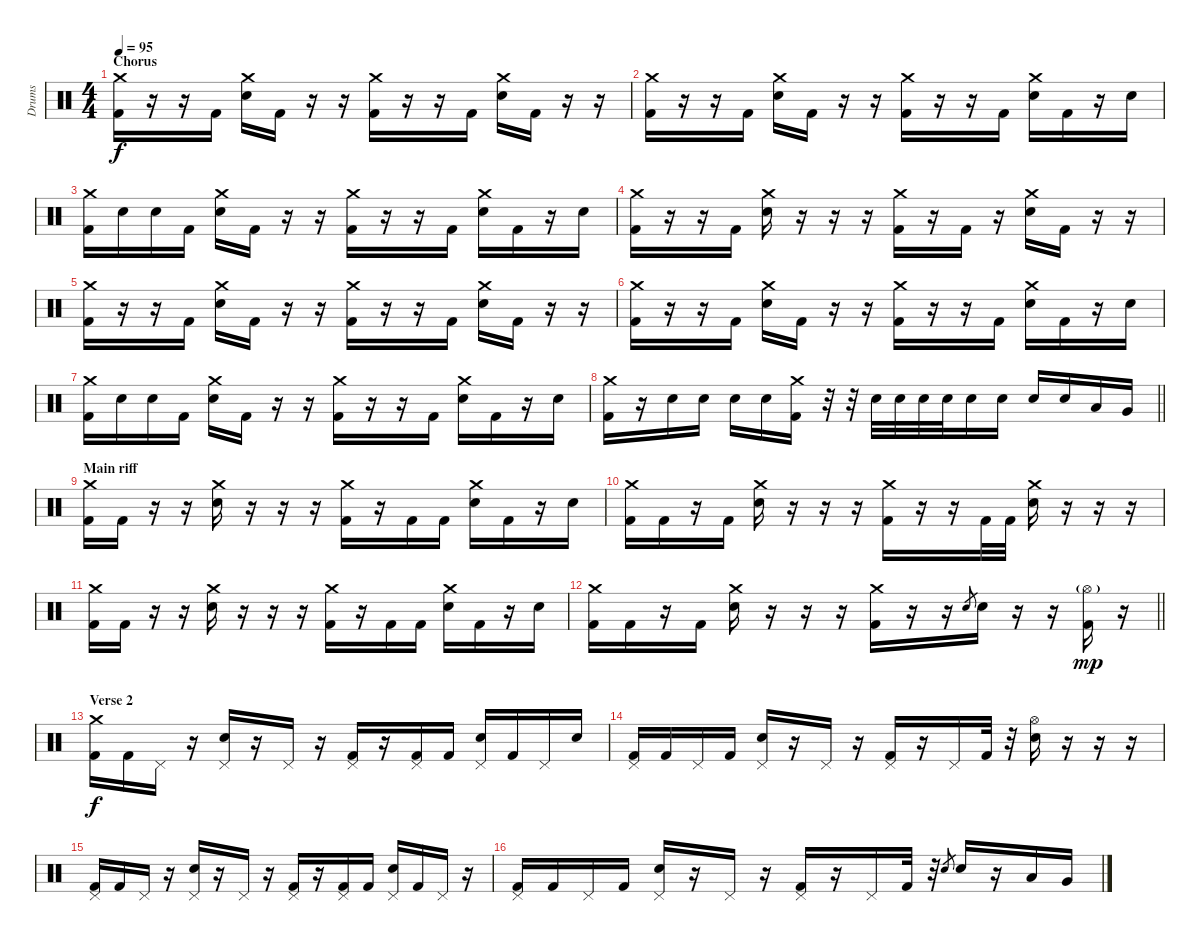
\track ("Drums" "Drums") {instrument percussion}
\staff {score}
\articulation defaults
\ts (4 4)
\section ("" "Chorus")
\tempo 95
\clef neutral
\ks c
("Crash medium (hit)" "Kick (hit) 2").16{dy f} r.16 r.16 "Kick (hit) 2".16 ("Crash medium (hit)" "Electric Snare (hit)").16 "Kick (hit) 2".16 r.16 r.16 ("Crash medium (hit)" "Kick (hit) 2").16 r.16 r.16 "Kick (hit) 2".16 ("Crash medium (hit)" "Electric Snare (hit)").16 "Kick (hit) 2".16 r.16 r.16 |
("Crash medium (hit)" "Kick (hit) 2").16 r.16 r.16 "Kick (hit) 2".16 ("Crash medium (hit)" "Electric Snare (hit)").16 "Kick (hit) 2".16 r.16 r.16 ("Crash medium (hit)" "Kick (hit) 2").16 r.16 r.16 "Kick (hit) 2".16 ("Crash medium (hit)" "Electric Snare (hit)").16 "Kick (hit) 2".16 r.16 "Electric Snare (hit)".16 |
("Crash medium (hit)" "Kick (hit) 2").16 "Electric Snare (hit)".16 "Electric Snare (hit)".16 "Kick (hit) 2".16 ("Crash medium (hit)" "Electric Snare (hit)").16 "Kick (hit) 2".16 r.16 r.16 ("Crash medium (hit)" "Kick (hit) 2").16 r.16 r.16 "Kick (hit) 2".16 ("Crash medium (hit)" "Electric Snare (hit)").16 "Kick (hit) 2".16 r.16 "Electric Snare (hit)".16 |
("Crash medium (hit)" "Kick (hit) 2").16 r.16 r.16 "Kick (hit) 2".16 ("Crash medium (hit)" "Electric Snare (hit)").16 r.16 r.16 r.16 ("Crash medium (hit)" "Kick (hit) 2").16 r.16 "Kick (hit) 2".16 r.16 ("Crash medium (hit)" "Electric Snare (hit)").16 "Kick (hit) 2".16 r.16 r.16 |
("Crash medium (hit)" "Kick (hit) 2").16 r.16 r.16 "Kick (hit) 2".16 ("Crash medium (hit)" "Electric Snare (hit)").16 "Kick (hit) 2".16 r.16 r.16 ("Crash medium (hit)" "Kick (hit) 2").16 r.16 r.16 "Kick (hit) 2".16 ("Crash medium (hit)" "Electric Snare (hit)").16 "Kick (hit) 2".16 r.16 r.16 |
("Crash medium (hit)" "Kick (hit) 2").16 r.16 r.16 "Kick (hit) 2".16 ("Crash medium (hit)" "Electric Snare (hit)").16 "Kick (hit) 2".16 r.16 r.16 ("Crash medium (hit)" "Kick (hit) 2").16 r.16 r.16 "Kick (hit) 2".16 ("Crash medium (hit)" "Electric Snare (hit)").16 "Kick (hit) 2".16 r.16 "Electric Snare (hit)".16 |
("Crash medium (hit)" "Kick (hit) 2").16 "Electric Snare (hit)".16 "Electric Snare (hit)".16 "Kick (hit) 2".16 ("Crash medium (hit)" "Electric Snare (hit)").16 "Kick (hit) 2".16 r.16 r.16 ("Crash medium (hit)" "Kick (hit) 2").16 r.16 r.16 "Kick (hit) 2".16 ("Crash medium (hit)" "Electric Snare (hit)").16 "Kick (hit) 2".16 r.16 "Electric Snare (hit)".16 |
\barLineRight lightlight
("Crash medium (hit)" "Kick (hit) 2").16 r.16 "Electric Snare (hit)".16 "Electric Snare (hit)".16 "Electric Snare (hit)".16 "Electric Snare (hit)".16 ("Crash medium (hit)" "Kick (hit) 2").16 r.32 r.32 "Electric Snare (hit)".32 "Electric Snare (hit)".32 "Electric Snare (hit)".32 "Electric Snare (hit)".32 "Electric Snare (hit)".16 "Electric Snare (hit)".16 "Electric Snare (hit)".16 "Electric Snare (hit)".16 "Low Tom (hit)".16 "Very Low Tom (hit)".16 |
\section ("" "Main riff")
("Crash medium (hit)" "Kick (hit) 2").16 "Kick (hit) 2".16 r.16 r.16 ("Crash medium (hit)" "Electric Snare (hit)").16 r.16 r.16 r.16 ("Crash medium (hit)" "Kick (hit) 2").16 r.16 "Kick (hit) 2".16 "Kick (hit) 2".16 ("Crash medium (hit)" "Electric Snare (hit)").16 "Kick (hit) 2".16 r.16 "Electric Snare (hit)".16 |
("Crash medium (hit)" "Kick (hit) 2").16 "Kick (hit) 2".16 r.16 "Kick (hit) 2".16 ("Crash medium (hit)" "Electric Snare (hit)").16 r.16 r.16 r.16 ("Crash medium (hit)" "Kick (hit) 2").16 r.16 r.16 "Kick (hit) 2".32 "Kick (hit) 2".32 ("Crash medium (hit)" "Electric Snare (hit)").16 r.16 r.16 r.16 |
("Crash medium (hit)" "Kick (hit) 2").16 "Kick (hit) 2".16 r.16 r.16 ("Crash medium (hit)" "Electric Snare (hit)").16 r.16 r.16 r.16 ("Crash medium (hit)" "Kick (hit) 2").16 r.16 "Kick (hit) 2".16 "Kick (hit) 2".16 ("Crash medium (hit)" "Electric Snare (hit)").16 "Kick (hit) 2".16 r.16 "Electric Snare (hit)".16 |
\barLineRight lightlight
("Crash medium (hit)" "Kick (hit) 2").16 "Kick (hit) 2".16 r.16 "Kick (hit) 2".16 ("Crash medium (hit)" "Electric Snare (hit)").16 r.16 r.16 r.16 ("Crash medium (hit)" "Kick (hit) 2").16 r.16 r.16 "Electric Snare (hit)".8{gr} "Electric Snare (hit)".16 r.16 r.16 ("Hi-Hat (open)"{g} "Kick (hit) 2").16{dy mp} r.16 |
\section ("" "Verse 2")
("Crash medium (hit)" "Kick (hit) 2").16{dy f} "Kick (hit) 2".16 "Pedal Hi-Hat (hit)".16 r.16 ("Pedal Hi-Hat (hit)" "Electric Snare (hit)").16 r.16 "Pedal Hi-Hat (hit)".16 r.16 ("Pedal Hi-Hat (hit)" "Kick (hit) 2").16 r.16 ("Pedal Hi-Hat (hit)" "Kick (hit) 2").16 "Kick (hit) 2".16 ("Pedal Hi-Hat (hit)" "Electric Snare (hit)").16 "Kick (hit) 2".16 "Pedal Hi-Hat (hit)".16 "Electric Snare (hit)".16 |
("Pedal Hi-Hat (hit)" "Kick (hit) 2").16 "Kick (hit) 2".16 "Pedal Hi-Hat (hit)".16 "Kick (hit) 2".16 ("Pedal Hi-Hat (hit)" "Electric Snare (hit)").16 r.16 "Pedal Hi-Hat (hit)".16 r.16 ("Pedal Hi-Hat (hit)" "Kick (hit) 2").16 r.16 "Pedal Hi-Hat (hit)".16 "Kick (hit) 2".32 r.32 ("Hi-Hat (open)" "Electric Snare (hit)").16 r.16 r.16 r.16 |
("Pedal Hi-Hat (hit)" "Kick (hit) 2").16 "Kick (hit) 2".16 "Pedal Hi-Hat (hit)".16 r.16 ("Pedal Hi-Hat (hit)" "Electric Snare (hit)").16 r.16 "Pedal Hi-Hat (hit)".16 r.16 ("Pedal Hi-Hat (hit)" "Kick (hit) 2").16 r.16 ("Pedal Hi-Hat (hit)" "Kick (hit) 2").16 "Kick (hit) 2".16 ("Pedal Hi-Hat (hit)" "Electric Snare (hit)").16 "Kick (hit) 2".16 "Pedal Hi-Hat (hit)".16 r.16 |
("Pedal Hi-Hat (hit)" "Kick (hit) 2").16 "Kick (hit) 2".16 "Pedal Hi-Hat (hit)".16 "Kick (hit) 2".16 ("Pedal Hi-Hat (hit)" "Electric Snare (hit)").16 r.16 "Pedal Hi-Hat (hit)".16 r.16 ("Pedal Hi-Hat (hit)" "Kick (hit) 2").16 r.16 "Pedal Hi-Hat (hit)".16 "Kick (hit) 2".32 r.32 "Electric Snare (hit)".8{gr} "Electric Snare (hit)".16 r.16 "Low Tom (hit)".16 "Very Low Tom (hit)".16
